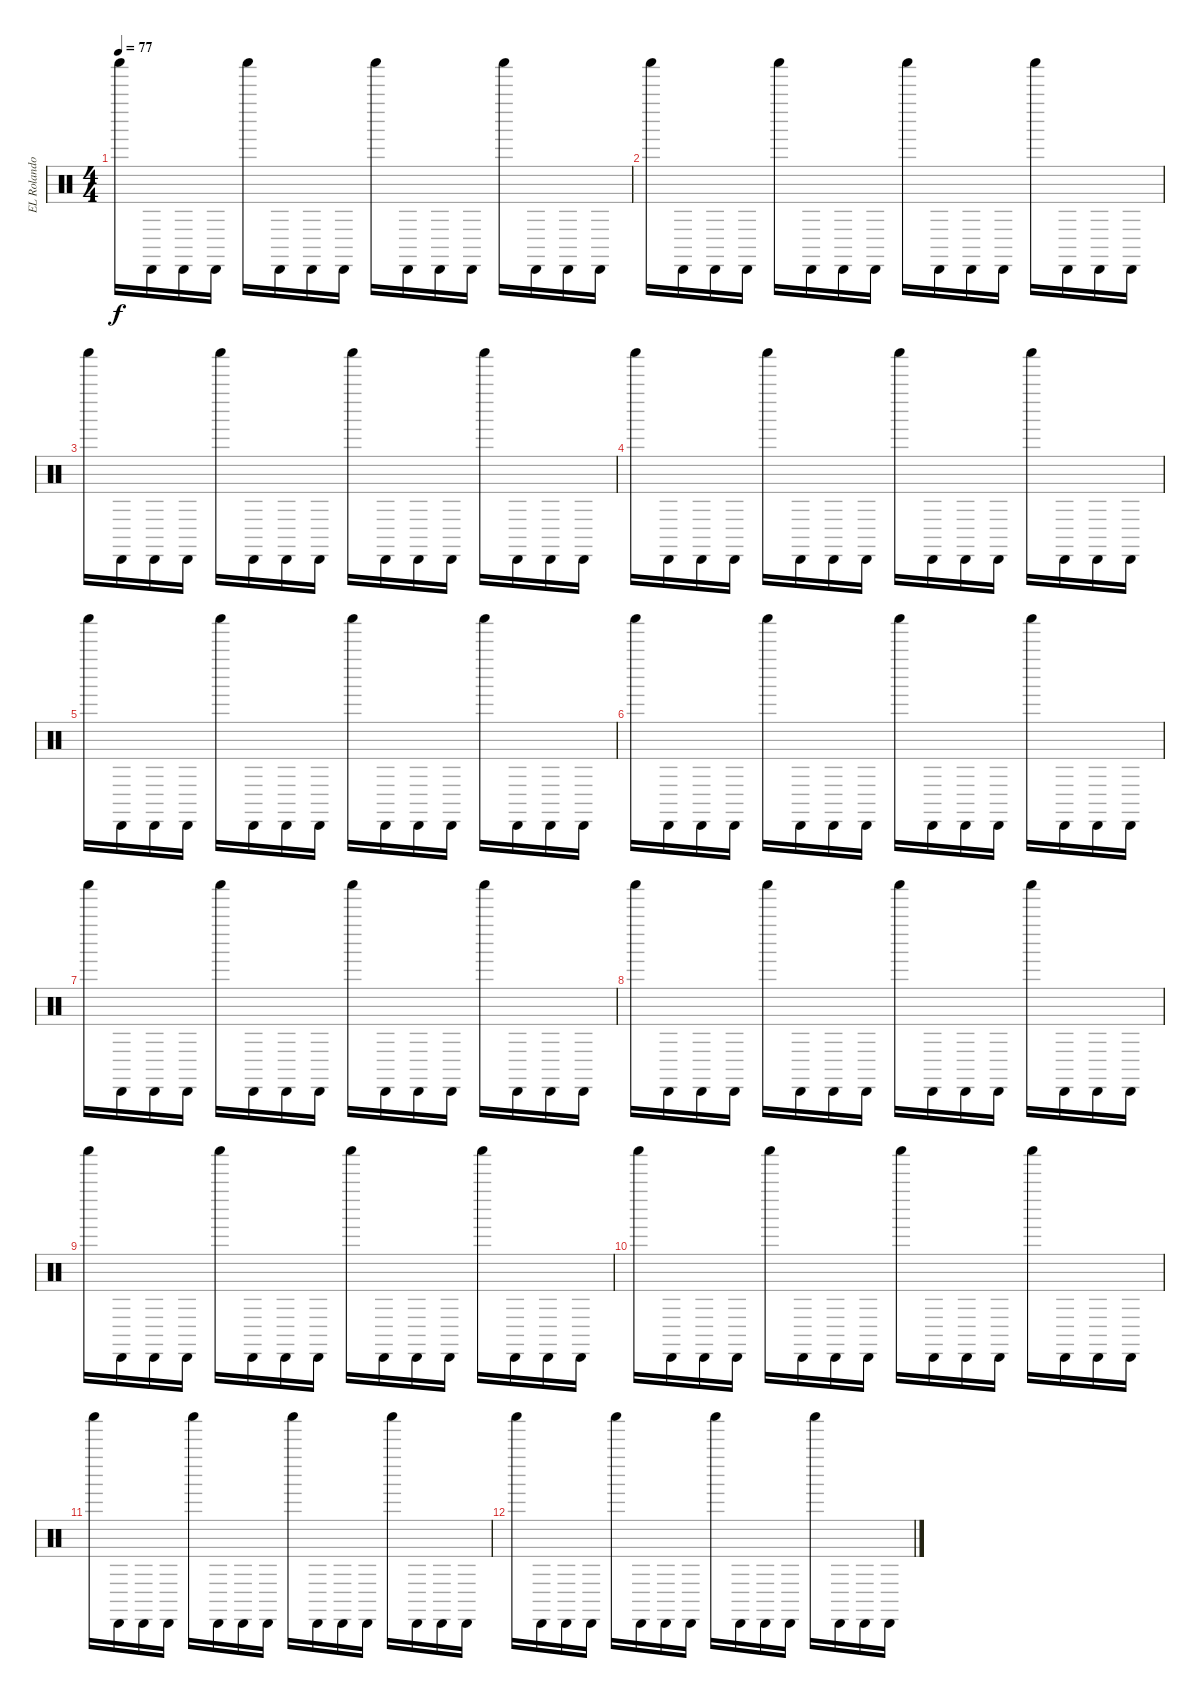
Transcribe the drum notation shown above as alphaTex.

\track ("EL Rolando" "EL Rolando") {instrument percussion}
\staff {score}
\articulation defaults
\ts (4 4)
\tempo 77
\clef neutral
\ks c "Shaker (hit)".16{dy f} "Cabasa (hit)".16 "Cabasa (hit)".16 "Cabasa (hit)".16 "Shaker (hit)".16 "Cabasa (hit)".16 "Cabasa (hit)".16 "Cabasa (hit)".16 "Shaker (hit)".16 "Cabasa (hit)".16 "Cabasa (hit)".16 "Cabasa (hit)".16 "Shaker (hit)".16 "Cabasa (hit)".16 "Cabasa (hit)".16 "Cabasa (hit)".16
|
"Shaker (hit)".16 "Cabasa (hit)".16 "Cabasa (hit)".16 "Cabasa (hit)".16 "Shaker (hit)".16 "Cabasa (hit)".16 "Cabasa (hit)".16 "Cabasa (hit)".16 "Shaker (hit)".16 "Cabasa (hit)".16 "Cabasa (hit)".16 "Cabasa (hit)".16 "Shaker (hit)".16 "Cabasa (hit)".16 "Cabasa (hit)".16 "Cabasa (hit)".16 |
"Shaker (hit)".16 "Cabasa (hit)".16 "Cabasa (hit)".16 "Cabasa (hit)".16 "Shaker (hit)".16 "Cabasa (hit)".16 "Cabasa (hit)".16 "Cabasa (hit)".16 "Shaker (hit)".16 "Cabasa (hit)".16 "Cabasa (hit)".16 "Cabasa (hit)".16 "Shaker (hit)".16 "Cabasa (hit)".16 "Cabasa (hit)".16 "Cabasa (hit)".16 |
"Shaker (hit)".16 "Cabasa (hit)".16 "Cabasa (hit)".16 "Cabasa (hit)".16 "Shaker (hit)".16 "Cabasa (hit)".16 "Cabasa (hit)".16 "Cabasa (hit)".16 "Shaker (hit)".16 "Cabasa (hit)".16 "Cabasa (hit)".16 "Cabasa (hit)".16 "Shaker (hit)".16 "Cabasa (hit)".16 "Cabasa (hit)".16 "Cabasa (hit)".16 |
"Shaker (hit)".16 "Cabasa (hit)".16 "Cabasa (hit)".16 "Cabasa (hit)".16 "Shaker (hit)".16 "Cabasa (hit)".16 "Cabasa (hit)".16 "Cabasa (hit)".16 "Shaker (hit)".16 "Cabasa (hit)".16 "Cabasa (hit)".16 "Cabasa (hit)".16 "Shaker (hit)".16 "Cabasa (hit)".16 "Cabasa (hit)".16 "Cabasa (hit)".16 |
"Shaker (hit)".16 "Cabasa (hit)".16 "Cabasa (hit)".16 "Cabasa (hit)".16 "Shaker (hit)".16 "Cabasa (hit)".16 "Cabasa (hit)".16 "Cabasa (hit)".16 "Shaker (hit)".16 "Cabasa (hit)".16 "Cabasa (hit)".16 "Cabasa (hit)".16 "Shaker (hit)".16 "Cabasa (hit)".16 "Cabasa (hit)".16 "Cabasa (hit)".16 |
"Shaker (hit)".16 "Cabasa (hit)".16 "Cabasa (hit)".16 "Cabasa (hit)".16 "Shaker (hit)".16 "Cabasa (hit)".16 "Cabasa (hit)".16 "Cabasa (hit)".16 "Shaker (hit)".16 "Cabasa (hit)".16 "Cabasa (hit)".16 "Cabasa (hit)".16 "Shaker (hit)".16 "Cabasa (hit)".16 "Cabasa (hit)".16 "Cabasa (hit)".16 |
"Shaker (hit)".16 "Cabasa (hit)".16 "Cabasa (hit)".16 "Cabasa (hit)".16 "Shaker (hit)".16 "Cabasa (hit)".16 "Cabasa (hit)".16 "Cabasa (hit)".16 "Shaker (hit)".16 "Cabasa (hit)".16 "Cabasa (hit)".16 "Cabasa (hit)".16 "Shaker (hit)".16 "Cabasa (hit)".16 "Cabasa (hit)".16 "Cabasa (hit)".16 |
"Shaker (hit)".16 "Cabasa (hit)".16 "Cabasa (hit)".16 "Cabasa (hit)".16 "Shaker (hit)".16 "Cabasa (hit)".16 "Cabasa (hit)".16 "Cabasa (hit)".16 "Shaker (hit)".16 "Cabasa (hit)".16 "Cabasa (hit)".16 "Cabasa (hit)".16 "Shaker (hit)".16 "Cabasa (hit)".16 "Cabasa (hit)".16 "Cabasa (hit)".16 |
"Shaker (hit)".16 "Cabasa (hit)".16 "Cabasa (hit)".16 "Cabasa (hit)".16 "Shaker (hit)".16 "Cabasa (hit)".16 "Cabasa (hit)".16 "Cabasa (hit)".16 "Shaker (hit)".16 "Cabasa (hit)".16 "Cabasa (hit)".16 "Cabasa (hit)".16 "Shaker (hit)".16 "Cabasa (hit)".16 "Cabasa (hit)".16 "Cabasa (hit)".16 |
"Shaker (hit)".16 "Cabasa (hit)".16 "Cabasa (hit)".16 "Cabasa (hit)".16 "Shaker (hit)".16 "Cabasa (hit)".16 "Cabasa (hit)".16 "Cabasa (hit)".16 "Shaker (hit)".16 "Cabasa (hit)".16 "Cabasa (hit)".16 "Cabasa (hit)".16 "Shaker (hit)".16 "Cabasa (hit)".16 "Cabasa (hit)".16 "Cabasa (hit)".16 |
"Shaker (hit)".16 "Cabasa (hit)".16 "Cabasa (hit)".16 "Cabasa (hit)".16 "Shaker (hit)".16 "Cabasa (hit)".16 "Cabasa (hit)".16 "Cabasa (hit)".16 "Shaker (hit)".16 "Cabasa (hit)".16 "Cabasa (hit)".16 "Cabasa (hit)".16 "Shaker (hit)".16 "Cabasa (hit)".16 "Cabasa (hit)".16 "Cabasa (hit)".16
